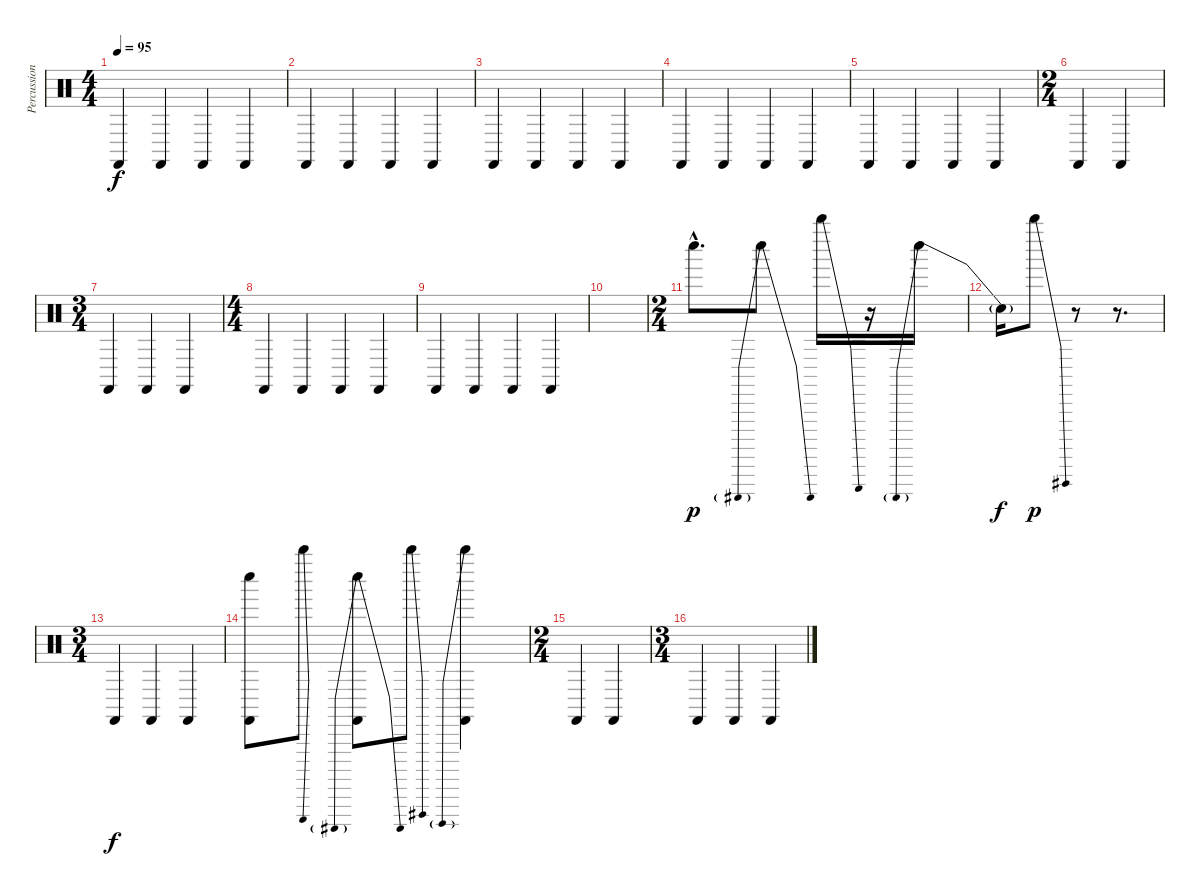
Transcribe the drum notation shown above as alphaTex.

\track ("Percussions" "Percussion") {instrument percussion}
\staff {score}
\articulation defaults
\ts (4 4)
\tempo 95
\clef neutral
\ks c "Castanets (hit)".4{dy f} "Castanets (hit)".4 "Castanets (hit)".4 "Castanets (hit)".4
|
"Castanets (hit)".4 "Castanets (hit)".4 "Castanets (hit)".4 "Castanets (hit)".4 |
"Castanets (hit)".4 "Castanets (hit)".4 "Castanets (hit)".4 "Castanets (hit)".4 |
"Castanets (hit)".4 "Castanets (hit)".4 "Castanets (hit)".4 "Castanets (hit)".4 |
"Castanets (hit)".4 "Castanets (hit)".4 "Castanets (hit)".4 "Castanets (hit)".4 |
\ts (2 4)
"Castanets (hit)".4 "Castanets (hit)".4 |
\ts (3 4)
"Castanets (hit)".4 "Castanets (hit)".4 "Castanets (hit)".4 |
\ts (4 4)
"Castanets (hit)".4 "Castanets (hit)".4 "Castanets (hit)".4 "Castanets (hit)".4 |
"Castanets (hit)".4 "Castanets (hit)".4 "Castanets (hit)".4 "Castanets (hit)".4 |
|
\ts (2 4)
"Whistle low (hit)"{hac}.8{d dy p} "Whistle low (hit)"{be (prebendrelease 0 12 60 0)}.8 "Whistle high (hit)"{be (bend 0 0 60 4)}.16 r.16 "Whistle low (hit)"{be (prebendrelease 0 12 60 0)}.16 |
"Snare (hit)"{t}.16{dy f} "Whistle high (hit)"{be (bend 0 0 60 8)}.8{dy p} r.8 r.8{d} |
\ts (3 4)
"Castanets (hit)".4{dy f} "Castanets (hit)".4 "Castanets (hit)".4 |
("Whistle low (hit)"{be (custom 0 12 20 12 40 0 60 0)} "Castanets (hit)").8 "Whistle high (hit)"{be (bend 0 0 60 4)}.8 ("Whistle low (hit)"{be (prebendrelease 0 12 60 0)} "Castanets (hit)").8 "Whistle high (hit)"{be (bend 0 0 60 8)}.8 ("Whistle high (hit)"{be (prebend 0 12 60 12)} "Castanets (hit)").4 |
\ts (2 4)
"Castanets (hit)".4 "Castanets (hit)".4 |
\ts (3 4)
"Castanets (hit)".4 "Castanets (hit)".4 "Castanets (hit)".4
